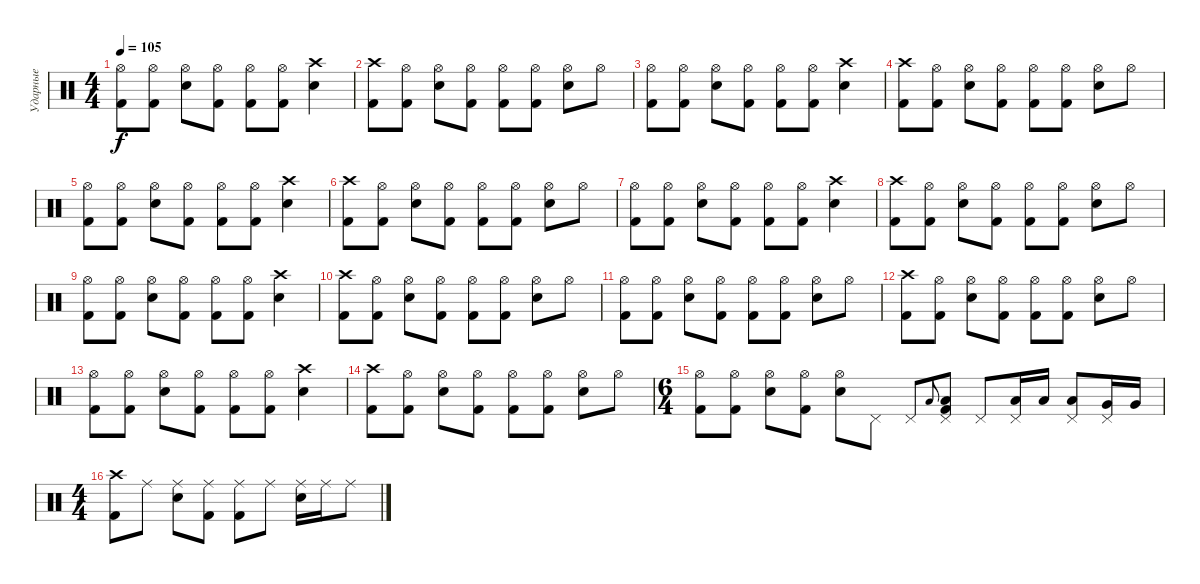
\track ("Ударные" "Ударные") {instrument percussion}
\staff {score}
\articulation defaults
\ts (4 4)
\tempo 105
\clef neutral
\ks c
("Kick (hit) 2" "Hi-Hat (open)").8{dy f} ("Kick (hit) 2" "Hi-Hat (open)").8 ("Electric Snare (hit)" "Hi-Hat (open)").8 ("Kick (hit) 2" "Hi-Hat (open)").8 ("Kick (hit) 2" "Hi-Hat (open)").8 ("Kick (hit) 2" "Hi-Hat (open)").8 ("Electric Snare (hit)" "Crash high (hit)").4 |
("Kick (hit) 2" "Crash high (hit)").8 ("Kick (hit) 2" "Hi-Hat (open)").8 ("Electric Snare (hit)" "Hi-Hat (open)").8 ("Kick (hit) 2" "Hi-Hat (open)").8 ("Kick (hit) 2" "Hi-Hat (open)").8 ("Kick (hit) 2" "Hi-Hat (open)").8 ("Electric Snare (hit)" "Hi-Hat (open)").8 "Hi-Hat (open)".8 |
("Kick (hit) 2" "Hi-Hat (open)").8 ("Kick (hit) 2" "Hi-Hat (open)").8 ("Electric Snare (hit)" "Hi-Hat (open)").8 ("Kick (hit) 2" "Hi-Hat (open)").8 ("Kick (hit) 2" "Hi-Hat (open)").8 ("Kick (hit) 2" "Hi-Hat (open)").8 ("Electric Snare (hit)" "Crash high (hit)").4 |
("Kick (hit) 2" "Crash high (hit)").8 ("Kick (hit) 2" "Hi-Hat (open)").8 ("Electric Snare (hit)" "Hi-Hat (open)").8 ("Kick (hit) 2" "Hi-Hat (open)").8 ("Kick (hit) 2" "Hi-Hat (open)").8 ("Kick (hit) 2" "Hi-Hat (open)").8 ("Electric Snare (hit)" "Hi-Hat (open)").8 "Hi-Hat (open)".8 |
("Kick (hit) 2" "Hi-Hat (open)").8 ("Kick (hit) 2" "Hi-Hat (open)").8 ("Electric Snare (hit)" "Hi-Hat (open)").8 ("Kick (hit) 2" "Hi-Hat (open)").8 ("Kick (hit) 2" "Hi-Hat (open)").8 ("Kick (hit) 2" "Hi-Hat (open)").8 ("Electric Snare (hit)" "Crash high (hit)").4 |
("Kick (hit) 2" "Crash high (hit)").8 ("Kick (hit) 2" "Hi-Hat (open)").8 ("Electric Snare (hit)" "Hi-Hat (open)").8 ("Kick (hit) 2" "Hi-Hat (open)").8 ("Kick (hit) 2" "Hi-Hat (open)").8 ("Kick (hit) 2" "Hi-Hat (open)").8 ("Electric Snare (hit)" "Hi-Hat (open)").8 "Hi-Hat (open)".8 |
("Kick (hit) 2" "Hi-Hat (open)").8 ("Kick (hit) 2" "Hi-Hat (open)").8 ("Electric Snare (hit)" "Hi-Hat (open)").8 ("Kick (hit) 2" "Hi-Hat (open)").8 ("Kick (hit) 2" "Hi-Hat (open)").8 ("Kick (hit) 2" "Hi-Hat (open)").8 ("Electric Snare (hit)" "Crash high (hit)").4 |
("Kick (hit) 2" "Crash high (hit)").8 ("Kick (hit) 2" "Hi-Hat (open)").8 ("Electric Snare (hit)" "Hi-Hat (open)").8 ("Kick (hit) 2" "Hi-Hat (open)").8 ("Kick (hit) 2" "Hi-Hat (open)").8 ("Kick (hit) 2" "Hi-Hat (open)").8 ("Electric Snare (hit)" "Hi-Hat (open)").8 "Hi-Hat (open)".8 |
("Kick (hit) 2" "Hi-Hat (open)").8 ("Kick (hit) 2" "Hi-Hat (open)").8 ("Electric Snare (hit)" "Hi-Hat (open)").8 ("Kick (hit) 2" "Hi-Hat (open)").8 ("Kick (hit) 2" "Hi-Hat (open)").8 ("Kick (hit) 2" "Hi-Hat (open)").8 ("Electric Snare (hit)" "Crash high (hit)").4 |
("Kick (hit) 2" "Crash high (hit)").8 ("Kick (hit) 2" "Hi-Hat (open)").8 ("Electric Snare (hit)" "Hi-Hat (open)").8 ("Kick (hit) 2" "Hi-Hat (open)").8 ("Kick (hit) 2" "Hi-Hat (open)").8 ("Kick (hit) 2" "Hi-Hat (open)").8 ("Electric Snare (hit)" "Hi-Hat (open)").8 "Hi-Hat (open)".8 |
("Kick (hit) 2" "Hi-Hat (open)").8 ("Kick (hit) 2" "Hi-Hat (open)").8 ("Electric Snare (hit)" "Hi-Hat (open)").8 ("Kick (hit) 2" "Hi-Hat (open)").8 ("Kick (hit) 2" "Hi-Hat (open)").8 ("Kick (hit) 2" "Hi-Hat (open)").8 ("Electric Snare (hit)" "Hi-Hat (open)").8 "Hi-Hat (open)".8 |
("Kick (hit) 2" "Crash high (hit)").8 ("Kick (hit) 2" "Hi-Hat (open)").8 ("Electric Snare (hit)" "Hi-Hat (open)").8 ("Kick (hit) 2" "Hi-Hat (open)").8 ("Kick (hit) 2" "Hi-Hat (open)").8 ("Kick (hit) 2" "Hi-Hat (open)").8 ("Electric Snare (hit)" "Hi-Hat (open)").8 "Hi-Hat (open)".8 |
("Kick (hit) 2" "Hi-Hat (open)").8 ("Kick (hit) 2" "Hi-Hat (open)").8 ("Electric Snare (hit)" "Hi-Hat (open)").8 ("Kick (hit) 2" "Hi-Hat (open)").8 ("Kick (hit) 2" "Hi-Hat (open)").8 ("Kick (hit) 2" "Hi-Hat (open)").8 ("Electric Snare (hit)" "Crash high (hit)").4 |
("Kick (hit) 2" "Crash high (hit)").8 ("Kick (hit) 2" "Hi-Hat (open)").8 ("Electric Snare (hit)" "Hi-Hat (open)").8 ("Kick (hit) 2" "Hi-Hat (open)").8 ("Kick (hit) 2" "Hi-Hat (open)").8 ("Kick (hit) 2" "Hi-Hat (open)").8 ("Electric Snare (hit)" "Hi-Hat (open)").8 "Hi-Hat (open)".8 |
\ts (6 4)
("Kick (hit) 2" "Hi-Hat (open)").8 ("Kick (hit) 2" "Hi-Hat (open)").8 ("Electric Snare (hit)" "Hi-Hat (open)").8 ("Kick (hit) 2" "Hi-Hat (open)").8 ("Electric Snare (hit)" "Hi-Hat (open)").8 "Pedal Hi-Hat (hit)".8 "Pedal Hi-Hat (hit)".8 "Low Tom (hit)".8{gr onbeat} ("Pedal Hi-Hat (hit)" "Low Tom (hit)" "Kick (hit) 2").8 "Pedal Hi-Hat (hit)".8 ("Pedal Hi-Hat (hit)" "Low Tom (hit)").16 "Low Tom (hit)".16 ("Pedal Hi-Hat (hit)" "Low Tom (hit)").8 ("Pedal Hi-Hat (hit)" "Very Low Tom (hit)").16 "Very Low Tom (hit)".16 |
\ts (4 4)
("Kick (hit) 2" "Crash high (hit)").8 "Ride (middle)".8 ("Electric Snare (hit)" "Ride (middle)").8 ("Kick (hit) 2" "Ride (middle)").8 ("Kick (hit) 2" "Ride (middle)").8 "Ride (middle)".8 ("Electric Snare (hit)" "Ride (middle)").16 "Ride (middle)".16 "Ride (middle)".8
